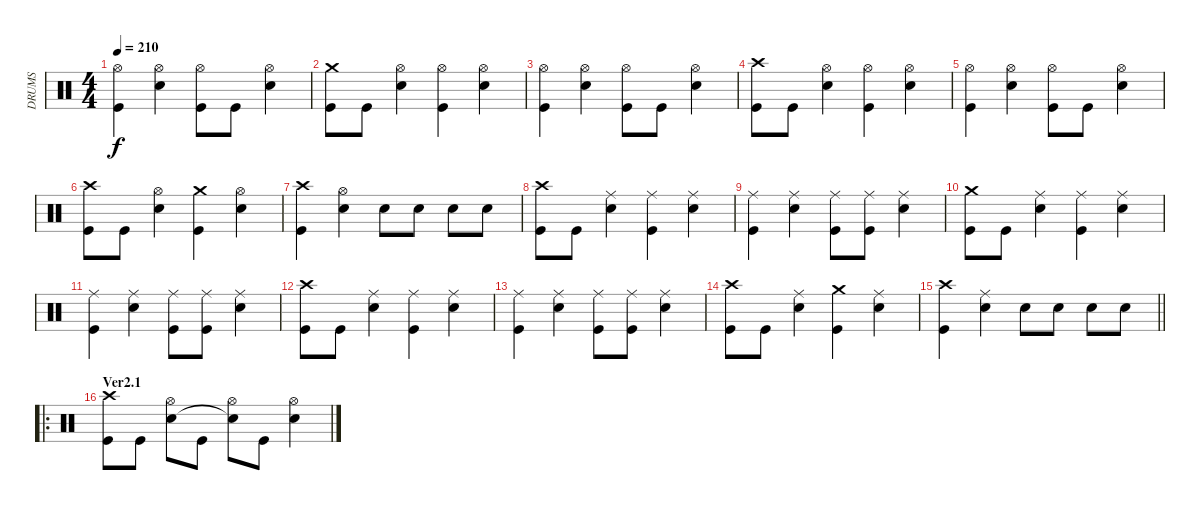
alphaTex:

\track ("DRUMS" "DRUMS") {instrument percussion}
\staff {score}
\articulation defaults
\ts (4 4)
\tempo 210
\clef neutral
\ks c
("Hi-Hat (open)" "Kick (hit)").4{dy f} ("Hi-Hat (open)" "Snare (hit) 2").4 ("Hi-Hat (open)" "Kick (hit)").8 "Kick (hit)".8 ("Hi-Hat (open)" "Snare (hit) 2").4 |
("Crash medium (hit)" "Kick (hit)").8 "Kick (hit)".8 ("Hi-Hat (open)" "Snare (hit) 2").4 ("Hi-Hat (open)" "Kick (hit)").4 ("Hi-Hat (open)" "Snare (hit) 2").4 |
("Hi-Hat (open)" "Kick (hit)").4 ("Hi-Hat (open)" "Snare (hit) 2").4 ("Hi-Hat (open)" "Kick (hit)").8 "Kick (hit)".8 ("Hi-Hat (open)" "Snare (hit) 2").4 |
("Crash high (hit)" "Kick (hit)").8 "Kick (hit)".8 ("Hi-Hat (open)" "Snare (hit) 2").4 ("Hi-Hat (open)" "Kick (hit)").4 ("Hi-Hat (open)" "Snare (hit) 2").4 |
("Hi-Hat (open)" "Kick (hit)").4 ("Hi-Hat (open)" "Snare (hit) 2").4 ("Hi-Hat (open)" "Kick (hit)").8 "Kick (hit)".8 ("Hi-Hat (open)" "Snare (hit) 2").4 |
("Crash high (hit)" "Kick (hit)").8 "Kick (hit)".8 ("Hi-Hat (open)" "Snare (hit) 2").4 ("Crash medium (hit)" "Kick (hit)").4 ("Hi-Hat (open)" "Snare (hit) 2").4 |
("Crash high (hit)" "Kick (hit)").4 ("Hi-Hat (open)" "Snare (hit) 2").4 "Snare (hit) 2".8 "Snare (hit) 2".8 "Snare (hit) 2".8 "Snare (hit) 2".8 |
("Crash high (hit)" "Kick (hit)").8 "Kick (hit)".8 ("Ride (middle)" "Snare (hit) 2").4 ("Ride (middle)" "Kick (hit)").4 ("Ride (middle)" "Snare (hit) 2").4 |
("Ride (middle)" "Kick (hit)").4 ("Ride (middle)" "Snare (hit) 2").4 ("Ride (middle)" "Kick (hit)").8 ("Ride (middle)" "Kick (hit)").8 ("Ride (middle)" "Snare (hit) 2").4 |
("Crash medium (hit)" "Kick (hit)").8 "Kick (hit)".8 ("Ride (middle)" "Snare (hit) 2").4 ("Ride (middle)" "Kick (hit)").4 ("Ride (middle)" "Snare (hit) 2").4 |
("Ride (middle)" "Kick (hit)").4 ("Ride (middle)" "Snare (hit) 2").4 ("Ride (middle)" "Kick (hit)").8 ("Ride (middle)" "Kick (hit)").8 ("Ride (middle)" "Snare (hit) 2").4 |
("Crash high (hit)" "Kick (hit)").8 "Kick (hit)".8 ("Ride (middle)" "Snare (hit) 2").4 ("Ride (middle)" "Kick (hit)").4 ("Ride (middle)" "Snare (hit) 2").4 |
("Ride (middle)" "Kick (hit)").4 ("Ride (middle)" "Snare (hit) 2").4 ("Ride (middle)" "Kick (hit)").8 ("Ride (middle)" "Kick (hit)").8 ("Ride (middle)" "Snare (hit) 2").4 |
("Crash high (hit)" "Kick (hit)").8 "Kick (hit)".8 ("Ride (middle)" "Snare (hit) 2").4 ("Crash medium (hit)" "Kick (hit)").4 ("Ride (middle)" "Snare (hit) 2").4 |
\barLineRight lightlight
("Crash high (hit)" "Kick (hit)").4 ("Ride (middle)" "Snare (hit) 2").4 "Snare (hit) 2".8 "Snare (hit) 2".8 "Snare (hit) 2".8 "Snare (hit) 2".8 |
\ro
\section ("" "Ver2.1")
("Crash high (hit)" "Kick (hit)").8 "Kick (hit)".8 ("Hi-Hat (open)" "Snare (hit) 2").8 "Kick (hit)".8 ("Hi-Hat (open)" "Snare (hit)"{t}).8 "Kick (hit)".8 ("Hi-Hat (open)" "Snare (hit) 2").4
